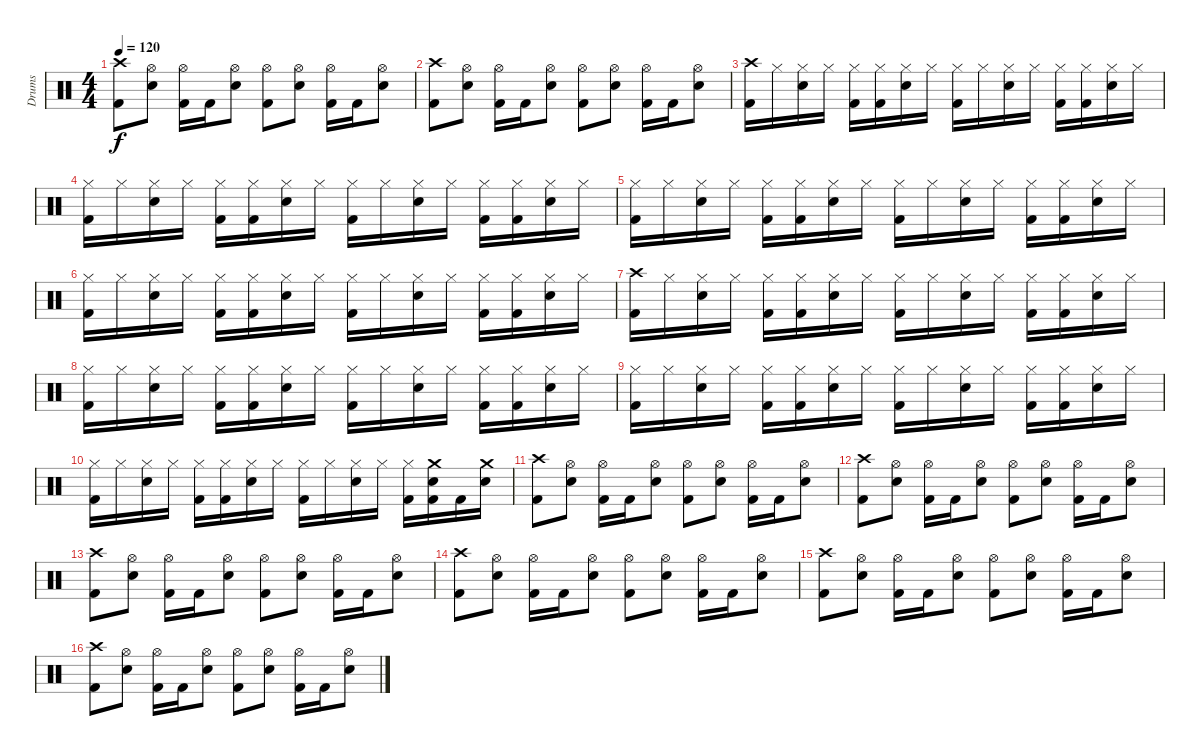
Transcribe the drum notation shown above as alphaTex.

\track ("Drums" "Drums") {instrument percussion}
\staff {score}
\articulation defaults
\ts (4 4)
\tempo 120
\clef neutral
\ks c
("Crash high (hit)" "Kick (hit) 2").8{dy f} ("Hi-Hat (open)" "Snare (hit) 2").8 ("Hi-Hat (open)" "Kick (hit) 2").16 "Kick (hit) 2".16 ("Hi-Hat (open)" "Snare (hit) 2").8 ("Hi-Hat (open)" "Kick (hit) 2").8 ("Hi-Hat (open)" "Snare (hit) 2").8 ("Hi-Hat (open)" "Kick (hit) 2").16 "Kick (hit) 2".16 ("Hi-Hat (open)" "Snare (hit) 2").8 |
("Crash high (hit)" "Kick (hit) 2").8 ("Hi-Hat (open)" "Snare (hit) 2").8 ("Hi-Hat (open)" "Kick (hit) 2").16 "Kick (hit) 2".16 ("Hi-Hat (open)" "Snare (hit) 2").8 ("Hi-Hat (open)" "Kick (hit) 2").8 ("Hi-Hat (open)" "Snare (hit) 2").8 ("Hi-Hat (open)" "Kick (hit) 2").16 "Kick (hit) 2".16 ("Hi-Hat (open)" "Snare (hit) 2").8 |
("Crash high (hit)" "Kick (hit) 2").16 "Hi-Hat (closed)".16 ("Hi-Hat (closed)" "Snare (hit) 2").16 "Hi-Hat (closed)".16 ("Hi-Hat (closed)" "Kick (hit) 2").16 ("Hi-Hat (closed)" "Kick (hit) 2").16 ("Hi-Hat (closed)" "Snare (hit) 2").16 "Hi-Hat (closed)".16 ("Hi-Hat (closed)" "Kick (hit) 2").16 "Hi-Hat (closed)".16 ("Hi-Hat (closed)" "Snare (hit) 2").16 "Hi-Hat (closed)".16 ("Hi-Hat (closed)" "Kick (hit) 2").16 ("Hi-Hat (closed)" "Kick (hit) 2").16 ("Hi-Hat (closed)" "Snare (hit) 2").16 "Hi-Hat (closed)".16 |
("Hi-Hat (closed)" "Kick (hit) 2").16 "Hi-Hat (closed)".16 ("Hi-Hat (closed)" "Snare (hit) 2").16 "Hi-Hat (closed)".16 ("Hi-Hat (closed)" "Kick (hit) 2").16 ("Hi-Hat (closed)" "Kick (hit) 2").16 ("Hi-Hat (closed)" "Snare (hit) 2").16 "Hi-Hat (closed)".16 ("Hi-Hat (closed)" "Kick (hit) 2").16 "Hi-Hat (closed)".16 ("Hi-Hat (closed)" "Snare (hit) 2").16 "Hi-Hat (closed)".16 ("Hi-Hat (closed)" "Kick (hit) 2").16 ("Hi-Hat (closed)" "Kick (hit) 2").16 ("Hi-Hat (closed)" "Snare (hit) 2").16 "Hi-Hat (closed)".16 |
("Hi-Hat (closed)" "Kick (hit) 2").16 "Hi-Hat (closed)".16 ("Hi-Hat (closed)" "Snare (hit) 2").16 "Hi-Hat (closed)".16 ("Hi-Hat (closed)" "Kick (hit) 2").16 ("Hi-Hat (closed)" "Kick (hit) 2").16 ("Hi-Hat (closed)" "Snare (hit) 2").16 "Hi-Hat (closed)".16 ("Hi-Hat (closed)" "Kick (hit) 2").16 "Hi-Hat (closed)".16 ("Hi-Hat (closed)" "Snare (hit) 2").16 "Hi-Hat (closed)".16 ("Hi-Hat (closed)" "Kick (hit) 2").16 ("Hi-Hat (closed)" "Kick (hit) 2").16 ("Hi-Hat (closed)" "Snare (hit) 2").16 "Hi-Hat (closed)".16 |
("Hi-Hat (closed)" "Kick (hit) 2").16 "Hi-Hat (closed)".16 ("Hi-Hat (closed)" "Snare (hit) 2").16 "Hi-Hat (closed)".16 ("Hi-Hat (closed)" "Kick (hit) 2").16 ("Hi-Hat (closed)" "Kick (hit) 2").16 ("Hi-Hat (closed)" "Snare (hit) 2").16 "Hi-Hat (closed)".16 ("Hi-Hat (closed)" "Kick (hit) 2").16 "Hi-Hat (closed)".16 ("Hi-Hat (closed)" "Snare (hit) 2").16 "Hi-Hat (closed)".16 ("Hi-Hat (closed)" "Kick (hit) 2").16 ("Hi-Hat (closed)" "Kick (hit) 2").16 ("Hi-Hat (closed)" "Snare (hit) 2").16 "Hi-Hat (closed)".16 |
("Crash high (hit)" "Kick (hit) 2").16 "Hi-Hat (closed)".16 ("Hi-Hat (closed)" "Snare (hit) 2").16 "Hi-Hat (closed)".16 ("Hi-Hat (closed)" "Kick (hit) 2").16 ("Hi-Hat (closed)" "Kick (hit) 2").16 ("Hi-Hat (closed)" "Snare (hit) 2").16 "Hi-Hat (closed)".16 ("Hi-Hat (closed)" "Kick (hit) 2").16 "Hi-Hat (closed)".16 ("Hi-Hat (closed)" "Snare (hit) 2").16 "Hi-Hat (closed)".16 ("Hi-Hat (closed)" "Kick (hit) 2").16 ("Hi-Hat (closed)" "Kick (hit) 2").16 ("Hi-Hat (closed)" "Snare (hit) 2").16 "Hi-Hat (closed)".16 |
("Hi-Hat (closed)" "Kick (hit) 2").16 "Hi-Hat (closed)".16 ("Hi-Hat (closed)" "Snare (hit) 2").16 "Hi-Hat (closed)".16 ("Hi-Hat (closed)" "Kick (hit) 2").16 ("Hi-Hat (closed)" "Kick (hit) 2").16 ("Hi-Hat (closed)" "Snare (hit) 2").16 "Hi-Hat (closed)".16 ("Hi-Hat (closed)" "Kick (hit) 2").16 "Hi-Hat (closed)".16 ("Hi-Hat (closed)" "Snare (hit) 2").16 "Hi-Hat (closed)".16 ("Hi-Hat (closed)" "Kick (hit) 2").16 ("Hi-Hat (closed)" "Kick (hit) 2").16 ("Hi-Hat (closed)" "Snare (hit) 2").16 "Hi-Hat (closed)".16 |
("Hi-Hat (closed)" "Kick (hit) 2").16 "Hi-Hat (closed)".16 ("Hi-Hat (closed)" "Snare (hit) 2").16 "Hi-Hat (closed)".16 ("Hi-Hat (closed)" "Kick (hit) 2").16 ("Hi-Hat (closed)" "Kick (hit) 2").16 ("Hi-Hat (closed)" "Snare (hit) 2").16 "Hi-Hat (closed)".16 ("Hi-Hat (closed)" "Kick (hit) 2").16 "Hi-Hat (closed)".16 ("Hi-Hat (closed)" "Snare (hit) 2").16 "Hi-Hat (closed)".16 ("Hi-Hat (closed)" "Kick (hit) 2").16 ("Hi-Hat (closed)" "Kick (hit) 2").16 ("Hi-Hat (closed)" "Snare (hit) 2").16 "Hi-Hat (closed)".16 |
("Hi-Hat (closed)" "Kick (hit) 2").16 "Hi-Hat (closed)".16 ("Hi-Hat (closed)" "Snare (hit) 2").16 "Hi-Hat (closed)".16 ("Hi-Hat (closed)" "Kick (hit) 2").16 ("Hi-Hat (closed)" "Kick (hit) 2").16 ("Hi-Hat (closed)" "Snare (hit) 2").16 "Hi-Hat (closed)".16 ("Hi-Hat (closed)" "Kick (hit) 2").16 "Hi-Hat (closed)".16 ("Hi-Hat (closed)" "Snare (hit) 2").16 "Hi-Hat (closed)".16 ("Hi-Hat (closed)" "Kick (hit) 2").16 ("Crash medium (hit)" "Snare (hit) 2" "Kick (hit) 2").16 "Kick (hit) 2".16 ("Crash medium (hit)" "Snare (hit) 2").16 |
("Crash high (hit)" "Kick (hit) 2").8 ("Hi-Hat (open)" "Snare (hit) 2").8 ("Hi-Hat (open)" "Kick (hit) 2").16 "Kick (hit) 2".16 ("Hi-Hat (open)" "Snare (hit) 2").8 ("Hi-Hat (open)" "Kick (hit) 2").8 ("Hi-Hat (open)" "Snare (hit) 2").8 ("Hi-Hat (open)" "Kick (hit) 2").16 "Kick (hit) 2".16 ("Hi-Hat (open)" "Snare (hit) 2").8 |
("Crash high (hit)" "Kick (hit) 2").8 ("Hi-Hat (open)" "Snare (hit) 2").8 ("Hi-Hat (open)" "Kick (hit) 2").16 "Kick (hit) 2".16 ("Hi-Hat (open)" "Snare (hit) 2").8 ("Hi-Hat (open)" "Kick (hit) 2").8 ("Hi-Hat (open)" "Snare (hit) 2").8 ("Hi-Hat (open)" "Kick (hit) 2").16 "Kick (hit) 2".16 ("Hi-Hat (open)" "Snare (hit) 2").8 |
("Crash high (hit)" "Kick (hit) 2").8 ("Hi-Hat (open)" "Snare (hit) 2").8 ("Hi-Hat (open)" "Kick (hit) 2").16 "Kick (hit) 2".16 ("Hi-Hat (open)" "Snare (hit) 2").8 ("Hi-Hat (open)" "Kick (hit) 2").8 ("Hi-Hat (open)" "Snare (hit) 2").8 ("Hi-Hat (open)" "Kick (hit) 2").16 "Kick (hit) 2".16 ("Hi-Hat (open)" "Snare (hit) 2").8 |
("Crash high (hit)" "Kick (hit) 2").8 ("Hi-Hat (open)" "Snare (hit) 2").8 ("Hi-Hat (open)" "Kick (hit) 2").16 "Kick (hit) 2".16 ("Hi-Hat (open)" "Snare (hit) 2").8 ("Hi-Hat (open)" "Kick (hit) 2").8 ("Hi-Hat (open)" "Snare (hit) 2").8 ("Hi-Hat (open)" "Kick (hit) 2").16 "Kick (hit) 2".16 ("Hi-Hat (open)" "Snare (hit) 2").8 |
("Crash high (hit)" "Kick (hit) 2").8 ("Hi-Hat (open)" "Snare (hit) 2").8 ("Hi-Hat (open)" "Kick (hit) 2").16 "Kick (hit) 2".16 ("Hi-Hat (open)" "Snare (hit) 2").8 ("Hi-Hat (open)" "Kick (hit) 2").8 ("Hi-Hat (open)" "Snare (hit) 2").8 ("Hi-Hat (open)" "Kick (hit) 2").16 "Kick (hit) 2".16 ("Hi-Hat (open)" "Snare (hit) 2").8 |
("Crash high (hit)" "Kick (hit) 2").8 ("Hi-Hat (open)" "Snare (hit) 2").8 ("Hi-Hat (open)" "Kick (hit) 2").16 "Kick (hit) 2".16 ("Hi-Hat (open)" "Snare (hit) 2").8 ("Hi-Hat (open)" "Kick (hit) 2").8 ("Hi-Hat (open)" "Snare (hit) 2").8 ("Hi-Hat (open)" "Kick (hit) 2").16 "Kick (hit) 2".16 ("Hi-Hat (open)" "Snare (hit) 2").8
